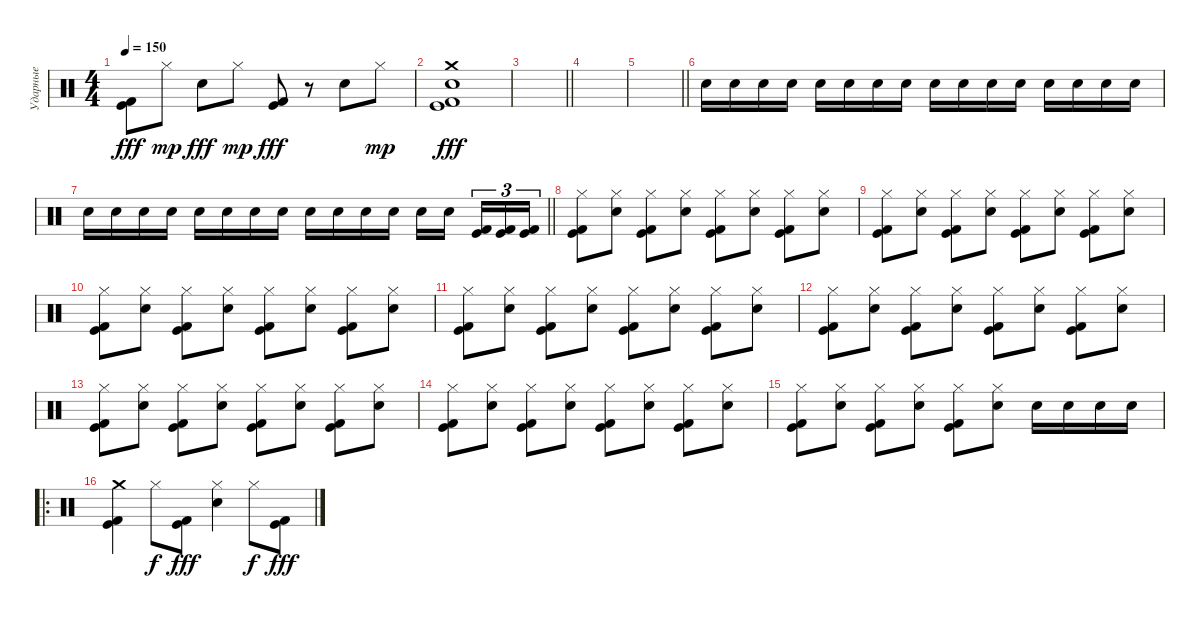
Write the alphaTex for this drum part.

\track ("Ударные" "Ударные") {instrument percussion}
\staff {score}
\articulation defaults
\ts (4 4)
\tempo 150
\clef neutral
\ks c
("Kick (hit) 2" "Kick (hit)").8{dy fff} "Hi-Hat (closed)".8{dy mp} "Snare (hit) 2".8{dy fff} "Hi-Hat (closed)".8{dy mp} ("Kick (hit) 2" "Kick (hit)").8{dy fff} r.8 "Snare (hit) 2".8 "Hi-Hat (closed)".8{dy mp} |
("Crash medium (hit)" "Kick (hit) 2" "Kick (hit)" "Snare (hit) 2").1{dy fff} |
\barLineRight lightlight
|
|
\barLineRight lightlight
|
"Snare (hit) 2".16{volume 8} "Snare (hit) 2".16 "Snare (hit) 2".16 "Snare (hit) 2".16 "Snare (hit) 2".16 "Snare (hit) 2".16 "Snare (hit) 2".16 "Snare (hit) 2".16 "Snare (hit) 2".16 "Snare (hit) 2".16 "Snare (hit) 2".16 "Snare (hit) 2".16 "Snare (hit) 2".16 "Snare (hit) 2".16 "Snare (hit) 2".16 "Snare (hit) 2".16 |
\barLineRight lightlight "Snare (hit) 2".16{volume 16} "Snare (hit) 2".16 "Snare (hit) 2".16 "Snare (hit) 2".16 "Snare (hit) 2".16 "Snare (hit) 2".16 "Snare (hit) 2".16 "Snare (hit) 2".16 "Snare (hit) 2".16 "Snare (hit) 2".16 "Snare (hit) 2".16 "Snare (hit) 2".16 "Snare (hit) 2".16 "Snare (hit) 2".16{beam splitsecondary}
("Kick (hit)" "Kick (hit) 2").16{tu (3 2)} ("Kick (hit)" "Kick (hit) 2").16{tu (3 2)} ("Kick (hit)" "Kick (hit) 2").16{tu (3 2)} |
("Kick (hit)" "Kick (hit) 2" "Hi-Hat (closed)").8 ("Snare (hit) 2" "Hi-Hat (closed)").8 ("Kick (hit)" "Kick (hit) 2" "Hi-Hat (closed)").8 ("Snare (hit) 2" "Hi-Hat (closed)").8 ("Kick (hit)" "Kick (hit) 2" "Hi-Hat (closed)").8 ("Snare (hit) 2" "Hi-Hat (closed)").8 ("Kick (hit)" "Kick (hit) 2" "Hi-Hat (closed)").8 ("Snare (hit) 2" "Hi-Hat (closed)").8 |
("Kick (hit)" "Kick (hit) 2" "Hi-Hat (closed)").8 ("Snare (hit) 2" "Hi-Hat (closed)").8 ("Kick (hit)" "Kick (hit) 2" "Hi-Hat (closed)").8 ("Snare (hit) 2" "Hi-Hat (closed)").8 ("Kick (hit)" "Kick (hit) 2" "Hi-Hat (closed)").8 ("Snare (hit) 2" "Hi-Hat (closed)").8 ("Kick (hit)" "Kick (hit) 2" "Hi-Hat (closed)").8 ("Snare (hit) 2" "Hi-Hat (closed)").8 |
("Kick (hit)" "Kick (hit) 2" "Hi-Hat (closed)").8 ("Snare (hit) 2" "Hi-Hat (closed)").8 ("Kick (hit)" "Kick (hit) 2" "Hi-Hat (closed)").8 ("Snare (hit) 2" "Hi-Hat (closed)").8 ("Kick (hit)" "Kick (hit) 2" "Hi-Hat (closed)").8 ("Snare (hit) 2" "Hi-Hat (closed)").8 ("Kick (hit)" "Kick (hit) 2" "Hi-Hat (closed)").8 ("Snare (hit) 2" "Hi-Hat (closed)").8 |
("Kick (hit)" "Kick (hit) 2" "Hi-Hat (closed)").8 ("Snare (hit) 2" "Hi-Hat (closed)").8 ("Kick (hit)" "Kick (hit) 2" "Hi-Hat (closed)").8 ("Snare (hit) 2" "Hi-Hat (closed)").8 ("Kick (hit)" "Kick (hit) 2" "Hi-Hat (closed)").8 ("Snare (hit) 2" "Hi-Hat (closed)").8 ("Kick (hit)" "Kick (hit) 2" "Hi-Hat (closed)").8 ("Snare (hit) 2" "Hi-Hat (closed)").8 |
("Kick (hit)" "Kick (hit) 2" "Hi-Hat (closed)").8 ("Snare (hit) 2" "Hi-Hat (closed)").8 ("Kick (hit)" "Kick (hit) 2" "Hi-Hat (closed)").8 ("Snare (hit) 2" "Hi-Hat (closed)").8 ("Kick (hit)" "Kick (hit) 2" "Hi-Hat (closed)").8 ("Snare (hit) 2" "Hi-Hat (closed)").8 ("Kick (hit)" "Kick (hit) 2" "Hi-Hat (closed)").8 ("Snare (hit) 2" "Hi-Hat (closed)").8 |
("Kick (hit)" "Kick (hit) 2" "Hi-Hat (closed)").8 ("Snare (hit) 2" "Hi-Hat (closed)").8 ("Kick (hit)" "Kick (hit) 2" "Hi-Hat (closed)").8 ("Snare (hit) 2" "Hi-Hat (closed)").8 ("Kick (hit)" "Kick (hit) 2" "Hi-Hat (closed)").8 ("Snare (hit) 2" "Hi-Hat (closed)").8 ("Kick (hit)" "Kick (hit) 2" "Hi-Hat (closed)").8 ("Snare (hit) 2" "Hi-Hat (closed)").8 |
("Kick (hit)" "Kick (hit) 2" "Hi-Hat (closed)").8 ("Snare (hit) 2" "Hi-Hat (closed)").8 ("Kick (hit)" "Kick (hit) 2" "Hi-Hat (closed)").8 ("Snare (hit) 2" "Hi-Hat (closed)").8 ("Kick (hit)" "Kick (hit) 2" "Hi-Hat (closed)").8 ("Snare (hit) 2" "Hi-Hat (closed)").8 ("Kick (hit)" "Kick (hit) 2" "Hi-Hat (closed)").8 ("Snare (hit) 2" "Hi-Hat (closed)").8 |
("Kick (hit)" "Kick (hit) 2" "Hi-Hat (closed)").8 ("Snare (hit) 2" "Hi-Hat (closed)").8 ("Kick (hit)" "Kick (hit) 2" "Hi-Hat (closed)").8 ("Snare (hit) 2" "Hi-Hat (closed)").8 ("Kick (hit)" "Kick (hit) 2" "Hi-Hat (closed)").8 ("Snare (hit) 2" "Hi-Hat (closed)").8 "Snare (hit) 2".16 "Snare (hit) 2".16 "Snare (hit) 2".16 "Snare (hit) 2".16 |
\ro
("Crash medium (hit)" "Kick (hit)" "Kick (hit) 2").4 "Hi-Hat (closed)".8{dy f} ("Kick (hit)" "Kick (hit) 2").8{dy fff} ("Hi-Hat (closed)" "Snare (hit) 2").4 "Hi-Hat (closed)".8{dy f} ("Kick (hit)" "Kick (hit) 2").8{dy fff}
